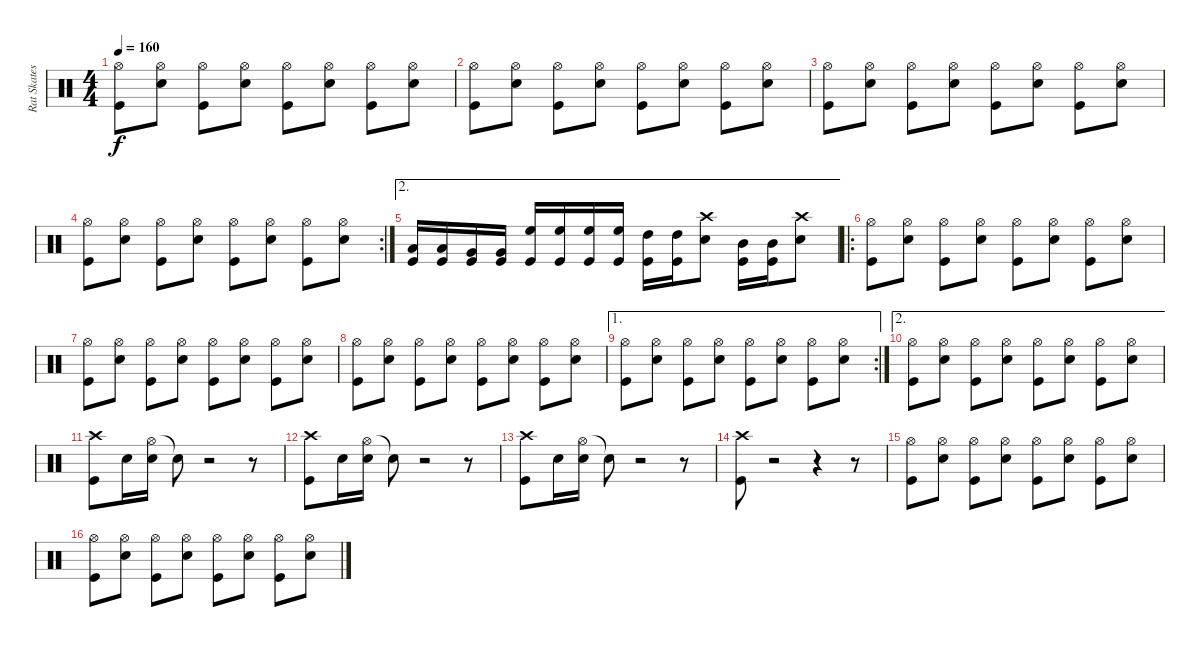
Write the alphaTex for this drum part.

\track ("Rat Skates" "Rat Skates") {instrument percussion}
\staff {score}
\articulation defaults
\ts (4 4)
\tempo 160
\clef neutral
\ks c
("Hi-Hat (open)" "Kick (hit)").8{dy f} ("Hi-Hat (open)" "Snare (hit) 2").8 ("Hi-Hat (open)" "Kick (hit)").8 ("Hi-Hat (open)" "Snare (hit) 2").8 ("Hi-Hat (open)" "Kick (hit)").8 ("Hi-Hat (open)" "Snare (hit) 2").8 ("Hi-Hat (open)" "Kick (hit)").8 ("Hi-Hat (open)" "Snare (hit) 2").8 |
("Hi-Hat (open)" "Kick (hit)").8 ("Hi-Hat (open)" "Snare (hit) 2").8 ("Hi-Hat (open)" "Kick (hit)").8 ("Hi-Hat (open)" "Snare (hit) 2").8 ("Hi-Hat (open)" "Kick (hit)").8 ("Hi-Hat (open)" "Snare (hit) 2").8 ("Hi-Hat (open)" "Kick (hit)").8 ("Hi-Hat (open)" "Snare (hit) 2").8 |
("Hi-Hat (open)" "Kick (hit)").8 ("Hi-Hat (open)" "Snare (hit) 2").8 ("Hi-Hat (open)" "Kick (hit)").8 ("Hi-Hat (open)" "Snare (hit) 2").8 ("Hi-Hat (open)" "Kick (hit)").8 ("Hi-Hat (open)" "Snare (hit) 2").8 ("Hi-Hat (open)" "Kick (hit)").8 ("Hi-Hat (open)" "Snare (hit) 2").8 |
\rc 2
("Hi-Hat (open)" "Kick (hit)").8 ("Hi-Hat (open)" "Snare (hit) 2").8 ("Hi-Hat (open)" "Kick (hit)").8 ("Hi-Hat (open)" "Snare (hit) 2").8 ("Hi-Hat (open)" "Kick (hit)").8 ("Hi-Hat (open)" "Snare (hit) 2").8 ("Hi-Hat (open)" "Kick (hit)").8 ("Hi-Hat (open)" "Snare (hit) 2").8 |
\ae 2
("Low Tom (hit)" "Kick (hit)").16 ("Low Tom (hit)" "Kick (hit)").16 ("Very Low Tom (hit)" "Kick (hit)").16 ("Very Low Tom (hit)" "Kick (hit)").16 ("High Floor Tom (hit)" "Kick (hit)").16 ("High Floor Tom (hit)" "Kick (hit)").16 ("High Floor Tom (hit)" "Kick (hit)").16 ("High Floor Tom (hit)" "Kick (hit)").16 ("High Tom (hit)" "Kick (hit)").16 ("High Tom (hit)" "Kick (hit)").16 ("Crash high (hit)" "Snare (hit) 2").8 ("Mid Tom (hit)" "Kick (hit)").16 ("Mid Tom (hit)" "Kick (hit)").16 ("Crash high (hit)" "Snare (hit) 2").8 |
\ro
("Hi-Hat (open)" "Kick (hit)").8 ("Hi-Hat (open)" "Snare (hit) 2").8 ("Hi-Hat (open)" "Kick (hit)").8 ("Hi-Hat (open)" "Snare (hit) 2").8 ("Hi-Hat (open)" "Kick (hit)").8 ("Hi-Hat (open)" "Snare (hit) 2").8 ("Hi-Hat (open)" "Kick (hit)").8 ("Hi-Hat (open)" "Snare (hit) 2").8 |
("Hi-Hat (open)" "Kick (hit)").8 ("Hi-Hat (open)" "Snare (hit) 2").8 ("Hi-Hat (open)" "Kick (hit)").8 ("Hi-Hat (open)" "Snare (hit) 2").8 ("Hi-Hat (open)" "Kick (hit)").8 ("Hi-Hat (open)" "Snare (hit) 2").8 ("Hi-Hat (open)" "Kick (hit)").8 ("Hi-Hat (open)" "Snare (hit) 2").8 |
("Hi-Hat (open)" "Kick (hit)").8 ("Hi-Hat (open)" "Snare (hit) 2").8 ("Hi-Hat (open)" "Kick (hit)").8 ("Hi-Hat (open)" "Snare (hit) 2").8 ("Hi-Hat (open)" "Kick (hit)").8 ("Hi-Hat (open)" "Snare (hit) 2").8 ("Hi-Hat (open)" "Kick (hit)").8 ("Hi-Hat (open)" "Snare (hit) 2").8 |
\ae 1
\rc 2
("Hi-Hat (open)" "Kick (hit)").8 ("Hi-Hat (open)" "Snare (hit) 2").8 ("Hi-Hat (open)" "Kick (hit)").8 ("Hi-Hat (open)" "Snare (hit) 2").8 ("Hi-Hat (open)" "Kick (hit)").8 ("Hi-Hat (open)" "Snare (hit) 2").8 ("Hi-Hat (open)" "Kick (hit)").8 ("Hi-Hat (open)" "Snare (hit) 2").8 |
\ae 2
("Hi-Hat (open)" "Kick (hit)").8 ("Hi-Hat (open)" "Snare (hit) 2").8 ("Hi-Hat (open)" "Kick (hit)").8 ("Hi-Hat (open)" "Snare (hit) 2").8 ("Hi-Hat (open)" "Kick (hit)").8 ("Hi-Hat (open)" "Snare (hit) 2").8 ("Hi-Hat (open)" "Kick (hit)").8 ("Hi-Hat (open)" "Snare (hit) 2").8 |
("Kick (hit)" "Crash high (hit)").8 "Snare (hit) 2".16 ("Hi-Hat (open)" "Snare (hit) 2").16 "Snare (hit)"{t}.8 r.2 r.8 |
("Kick (hit)" "Crash high (hit)").8 "Snare (hit) 2".16 ("Hi-Hat (open)" "Snare (hit) 2").16 "Snare (hit)"{t}.8 r.2 r.8 |
("Kick (hit)" "Crash high (hit)").8 "Snare (hit) 2".16 ("Hi-Hat (open)" "Snare (hit) 2").16 "Snare (hit)"{t}.8 r.2 r.8 |
("Crash high (hit)" "Kick (hit)").8 r.2 r.4 r.8 |
("Hi-Hat (open)" "Kick (hit)").8 ("Hi-Hat (open)" "Snare (hit) 2").8 ("Hi-Hat (open)" "Kick (hit)").8 ("Hi-Hat (open)" "Snare (hit) 2").8 ("Hi-Hat (open)" "Kick (hit)").8 ("Hi-Hat (open)" "Snare (hit) 2").8 ("Hi-Hat (open)" "Kick (hit)").8 ("Hi-Hat (open)" "Snare (hit) 2").8 |
("Hi-Hat (open)" "Kick (hit)").8 ("Hi-Hat (open)" "Snare (hit) 2").8 ("Hi-Hat (open)" "Kick (hit)").8 ("Hi-Hat (open)" "Snare (hit) 2").8 ("Hi-Hat (open)" "Kick (hit)").8 ("Hi-Hat (open)" "Snare (hit) 2").8 ("Hi-Hat (open)" "Kick (hit)").8 ("Hi-Hat (open)" "Snare (hit) 2").8
